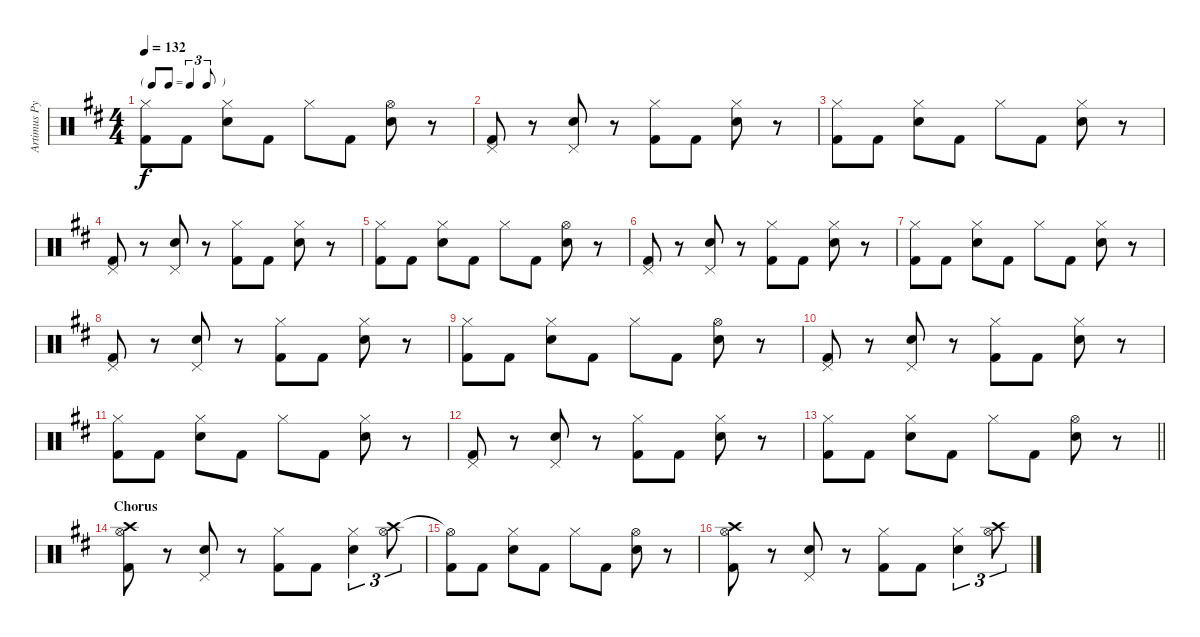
\track ("Artimus Pyle - Drums" "Artimus Py") {solo instrument percussion}
\staff {score}
\articulation defaults
\ts (4 4)
\tf triplet8th
\tempo 132
\clef neutral
\ks d
("Hi-Hat (closed)" "Kick (hit) 2").8{dy f} "Kick (hit) 2".8 ("Snare (hit) 2" "Hi-Hat (closed)").8 "Kick (hit) 2".8 "Hi-Hat (closed)".8 "Kick (hit) 2".8 ("Snare (hit) 2" "Hi-Hat (open)").8 r.8 |
("Pedal Hi-Hat (hit)" "Kick (hit) 2").8 r.8 ("Snare (hit) 2" "Pedal Hi-Hat (hit)").8 r.8 ("Hi-Hat (closed)" "Kick (hit) 2").8 "Kick (hit) 2".8 ("Snare (hit) 2" "Hi-Hat (closed)").8 r.8 |
("Hi-Hat (closed)" "Kick (hit) 2").8 "Kick (hit) 2".8 ("Snare (hit) 2" "Hi-Hat (closed)").8 "Kick (hit) 2".8 "Hi-Hat (closed)".8 "Kick (hit) 2".8 ("Snare (hit) 2" "Hi-Hat (closed)").8 r.8 |
("Pedal Hi-Hat (hit)" "Kick (hit) 2").8 r.8 ("Snare (hit) 2" "Pedal Hi-Hat (hit)").8 r.8 ("Hi-Hat (closed)" "Kick (hit) 2").8 "Kick (hit) 2".8 ("Snare (hit) 2" "Hi-Hat (closed)").8 r.8 |
("Hi-Hat (closed)" "Kick (hit) 2").8 "Kick (hit) 2".8 ("Snare (hit) 2" "Hi-Hat (closed)").8 "Kick (hit) 2".8 "Hi-Hat (closed)".8 "Kick (hit) 2".8 ("Snare (hit) 2" "Hi-Hat (open)").8 r.8 |
("Pedal Hi-Hat (hit)" "Kick (hit) 2").8 r.8 ("Snare (hit) 2" "Pedal Hi-Hat (hit)").8 r.8 ("Hi-Hat (closed)" "Kick (hit) 2").8 "Kick (hit) 2".8 ("Snare (hit) 2" "Hi-Hat (closed)").8 r.8 |
("Hi-Hat (closed)" "Kick (hit) 2").8 "Kick (hit) 2".8 ("Snare (hit) 2" "Hi-Hat (closed)").8 "Kick (hit) 2".8 "Hi-Hat (closed)".8 "Kick (hit) 2".8 ("Snare (hit) 2" "Hi-Hat (closed)").8 r.8 |
("Pedal Hi-Hat (hit)" "Kick (hit) 2").8 r.8 ("Snare (hit) 2" "Pedal Hi-Hat (hit)").8 r.8 ("Hi-Hat (closed)" "Kick (hit) 2").8 "Kick (hit) 2".8 ("Snare (hit) 2" "Hi-Hat (closed)").8 r.8 |
("Hi-Hat (closed)" "Kick (hit) 2").8 "Kick (hit) 2".8 ("Snare (hit) 2" "Hi-Hat (closed)").8 "Kick (hit) 2".8 "Hi-Hat (closed)".8 "Kick (hit) 2".8 ("Snare (hit) 2" "Hi-Hat (open)").8 r.8 |
("Pedal Hi-Hat (hit)" "Kick (hit) 2").8 r.8 ("Snare (hit) 2" "Pedal Hi-Hat (hit)").8 r.8 ("Hi-Hat (closed)" "Kick (hit) 2").8 "Kick (hit) 2".8 ("Snare (hit) 2" "Hi-Hat (closed)").8 r.8 |
("Hi-Hat (closed)" "Kick (hit) 2").8 "Kick (hit) 2".8 ("Snare (hit) 2" "Hi-Hat (closed)").8 "Kick (hit) 2".8 "Hi-Hat (closed)".8 "Kick (hit) 2".8 ("Snare (hit) 2" "Hi-Hat (closed)").8 r.8 |
("Pedal Hi-Hat (hit)" "Kick (hit) 2").8 r.8 ("Snare (hit) 2" "Pedal Hi-Hat (hit)").8 r.8 ("Hi-Hat (closed)" "Kick (hit) 2").8 "Kick (hit) 2".8 ("Snare (hit) 2" "Hi-Hat (closed)").8 r.8 |
\barLineRight lightlight
("Hi-Hat (closed)" "Kick (hit) 2").8 "Kick (hit) 2".8 ("Snare (hit) 2" "Hi-Hat (closed)").8 "Kick (hit) 2".8 "Hi-Hat (closed)".8 "Kick (hit) 2".8 ("Snare (hit) 2" "Hi-Hat (open)").8 r.8 |
\section ("" "Chorus")
("Crash high (hit)" "Hi-Hat (open)" "Kick (hit) 2").8 r.8 ("Snare (hit) 2" "Pedal Hi-Hat (hit)").8 r.8 ("Hi-Hat (closed)" "Kick (hit) 2").8 "Kick (hit) 2".8 ("Snare (hit) 2" "Hi-Hat (closed)").4{tu (3 2)} ("Crash high (hit)" "Hi-Hat (open)").8{tu (3 2)} |
("Hi-Hat (open)"{t} "Kick (hit) 2").8 "Kick (hit) 2".8 ("Snare (hit) 2" "Hi-Hat (closed)").8 "Kick (hit) 2".8 "Hi-Hat (closed)".8 "Kick (hit) 2".8 ("Snare (hit) 2" "Hi-Hat (open)").8 r.8 |
("Crash high (hit)" "Hi-Hat (open)" "Kick (hit) 2").8 r.8 ("Snare (hit) 2" "Pedal Hi-Hat (hit)").8 r.8 ("Hi-Hat (closed)" "Kick (hit) 2").8 "Kick (hit) 2".8 ("Snare (hit) 2" "Hi-Hat (closed)").4{tu (3 2)} ("Crash high (hit)" "Hi-Hat (open)").8{tu (3 2)}
